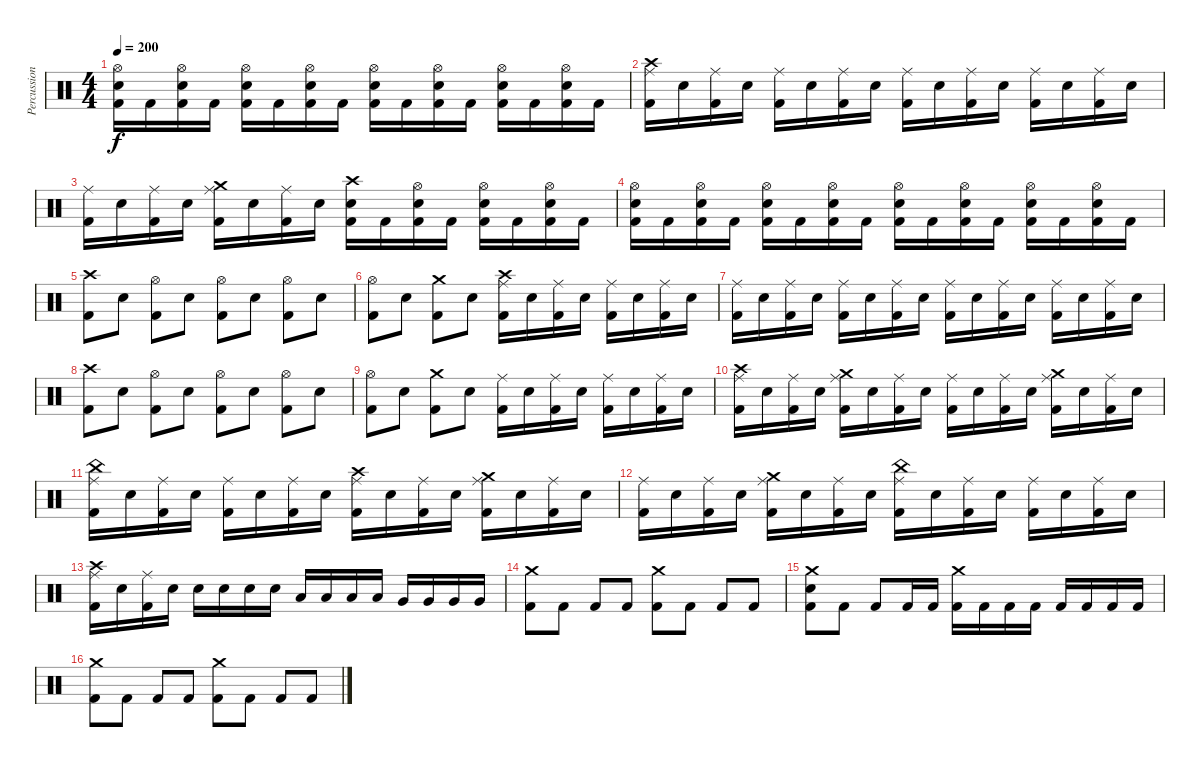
\track ("Percussion" "Percussion") {instrument percussion}
\staff
\articulation defaults
\ts (4 4)
\tempo 200
\clef neutral
\ks c
("Hi-Hat (open)" "Electric Snare (hit)" "Kick (hit) 2").16{dy f} "Kick (hit) 2".16 ("Hi-Hat (open)" "Electric Snare (hit)" "Kick (hit) 2").16 "Kick (hit) 2".16 ("Hi-Hat (open)" "Electric Snare (hit)" "Kick (hit) 2").16 "Kick (hit) 2".16 ("Hi-Hat (open)" "Electric Snare (hit)" "Kick (hit) 2").16 "Kick (hit) 2".16 ("Hi-Hat (open)" "Electric Snare (hit)" "Kick (hit) 2").16 "Kick (hit) 2".16 ("Hi-Hat (open)" "Electric Snare (hit)" "Kick (hit) 2").16 "Kick (hit) 2".16 ("Hi-Hat (open)" "Electric Snare (hit)" "Kick (hit) 2").16 "Kick (hit) 2".16 ("Hi-Hat (open)" "Electric Snare (hit)" "Kick (hit) 2").16 "Kick (hit) 2".16 |
("Crash high (hit)" "Ride (middle)" "Kick (hit) 2").16 "Electric Snare (hit)".16 ("Ride (middle)" "Kick (hit) 2").16 "Electric Snare (hit)".16 ("Ride (middle)" "Kick (hit) 2").16 "Electric Snare (hit)".16 ("Ride (middle)" "Kick (hit) 2").16 "Electric Snare (hit)".16 ("Ride (middle)" "Kick (hit) 2").16 "Electric Snare (hit)".16 ("Ride (middle)" "Kick (hit) 2").16 "Electric Snare (hit)".16 ("Ride (middle)" "Kick (hit) 2").16 "Electric Snare (hit)".16 ("Ride (middle)" "Kick (hit) 2").16 "Electric Snare (hit)".16 |
("Ride (middle)" "Kick (hit) 2").16 "Electric Snare (hit)".16 ("Ride (middle)" "Kick (hit) 2").16 "Electric Snare (hit)".16 ("Crash medium (hit)" "Ride (middle)" "Kick (hit) 2").16 "Electric Snare (hit)".16 ("Ride (middle)" "Kick (hit) 2").16 "Electric Snare (hit)".16 ("Crash high (hit)" "Electric Snare (hit)" "Kick (hit) 2").16 "Kick (hit) 2".16 ("Hi-Hat (open)" "Electric Snare (hit)" "Kick (hit) 2").16 "Kick (hit) 2".16 ("Hi-Hat (open)" "Electric Snare (hit)" "Kick (hit) 2").16 "Kick (hit) 2".16 ("Hi-Hat (open)" "Electric Snare (hit)" "Kick (hit) 2").16 "Kick (hit) 2".16 |
("Hi-Hat (open)" "Electric Snare (hit)" "Kick (hit) 2").16 "Kick (hit) 2".16 ("Hi-Hat (open)" "Electric Snare (hit)" "Kick (hit) 2").16 "Kick (hit) 2".16 ("Hi-Hat (open)" "Electric Snare (hit)" "Kick (hit) 2").16 "Kick (hit) 2".16 ("Hi-Hat (open)" "Electric Snare (hit)" "Kick (hit) 2").16 "Kick (hit) 2".16 ("Hi-Hat (open)" "Electric Snare (hit)" "Kick (hit) 2").16 "Kick (hit) 2".16 ("Hi-Hat (open)" "Electric Snare (hit)" "Kick (hit) 2").16 "Kick (hit) 2".16 ("Hi-Hat (open)" "Electric Snare (hit)" "Kick (hit) 2").16 "Kick (hit) 2".16 ("Hi-Hat (open)" "Electric Snare (hit)" "Kick (hit) 2").16 "Kick (hit) 2".16 |
("Crash high (hit)" "Kick (hit) 2").8 "Electric Snare (hit)".8 ("Hi-Hat (open)" "Kick (hit) 2").8 "Electric Snare (hit)".8 ("Hi-Hat (open)" "Kick (hit) 2").8 "Electric Snare (hit)".8 ("Hi-Hat (open)" "Kick (hit) 2").8 "Electric Snare (hit)".8 |
("Hi-Hat (open)" "Kick (hit) 2").8 "Electric Snare (hit)".8 ("Crash medium (hit)" "Kick (hit) 2").8 "Electric Snare (hit)".8 ("Crash high (hit)" "Ride (middle)" "Kick (hit) 2").16 "Electric Snare (hit)".16 ("Ride (middle)" "Kick (hit) 2").16 "Electric Snare (hit)".16 ("Ride (middle)" "Kick (hit) 2").16 "Electric Snare (hit)".16 ("Ride (middle)" "Kick (hit) 2").16 "Electric Snare (hit)".16 |
("Ride (middle)" "Kick (hit) 2").16 "Electric Snare (hit)".16 ("Ride (middle)" "Kick (hit) 2").16 "Electric Snare (hit)".16 ("Ride (middle)" "Kick (hit) 2").16 "Electric Snare (hit)".16 ("Ride (middle)" "Kick (hit) 2").16 "Electric Snare (hit)".16 ("Ride (middle)" "Kick (hit) 2").16 "Electric Snare (hit)".16 ("Ride (middle)" "Kick (hit) 2").16 "Electric Snare (hit)".16 ("Ride (middle)" "Kick (hit) 2").16 "Electric Snare (hit)".16 ("Ride (middle)" "Kick (hit) 2").16 "Electric Snare (hit)".16 |
("Crash high (hit)" "Kick (hit) 2").8 "Electric Snare (hit)".8 ("Hi-Hat (open)" "Kick (hit) 2").8 "Electric Snare (hit)".8 ("Hi-Hat (open)" "Kick (hit) 2").8 "Electric Snare (hit)".8 ("Hi-Hat (open)" "Kick (hit) 2").8 "Electric Snare (hit)".8 |
("Hi-Hat (open)" "Kick (hit) 2").8 "Electric Snare (hit)".8 ("Crash medium (hit)" "Kick (hit) 2").8 "Electric Snare (hit)".8 ("Ride (middle)" "Kick (hit) 2").16 "Electric Snare (hit)".16 ("Ride (middle)" "Kick (hit) 2").16 "Electric Snare (hit)".16 ("Ride (middle)" "Kick (hit) 2").16 "Electric Snare (hit)".16 ("Ride (middle)" "Kick (hit) 2").16 "Electric Snare (hit)".16 |
("Crash high (hit)" "Ride (middle)" "Kick (hit) 2").16 "Electric Snare (hit)".16 ("Ride (middle)" "Kick (hit) 2").16 "Electric Snare (hit)".16 ("Crash medium (hit)" "Ride (middle)" "Kick (hit) 2").16 "Electric Snare (hit)".16 ("Ride (middle)" "Kick (hit) 2").16 "Electric Snare (hit)".16 ("Ride (middle)" "Kick (hit) 2").16 "Electric Snare (hit)".16 ("Ride (middle)" "Kick (hit) 2").16 "Electric Snare (hit)".16 ("Crash medium (hit)" "Ride (middle)" "Kick (hit) 2").16 "Electric Snare (hit)".16 ("Ride (middle)" "Kick (hit) 2").16 "Electric Snare (hit)".16 |
("China (hit)" "Ride (middle)" "Kick (hit) 2").16 "Electric Snare (hit)".16 ("Ride (middle)" "Kick (hit) 2").16 "Electric Snare (hit)".16 ("Ride (middle)" "Kick (hit) 2").16 "Electric Snare (hit)".16 ("Ride (middle)" "Kick (hit) 2").16 "Electric Snare (hit)".16 ("Crash high (hit)" "Ride (middle)" "Kick (hit) 2").16 "Electric Snare (hit)".16 ("Ride (middle)" "Kick (hit) 2").16 "Electric Snare (hit)".16 ("Crash medium (hit)" "Ride (middle)" "Kick (hit) 2").16 "Electric Snare (hit)".16 ("Ride (middle)" "Kick (hit) 2").16 "Electric Snare (hit)".16 |
("Ride (middle)" "Kick (hit) 2").16 "Electric Snare (hit)".16 ("Ride (middle)" "Kick (hit) 2").16 "Electric Snare (hit)".16 ("Crash medium (hit)" "Ride (middle)" "Kick (hit) 2").16 "Electric Snare (hit)".16 ("Ride (middle)" "Kick (hit) 2").16 "Electric Snare (hit)".16 ("China (hit)" "Ride (middle)" "Kick (hit) 2").16 "Electric Snare (hit)".16 ("Ride (middle)" "Kick (hit) 2").16 "Electric Snare (hit)".16 ("Ride (middle)" "Kick (hit) 2").16 "Electric Snare (hit)".16 ("Ride (middle)" "Kick (hit) 2").16 "Electric Snare (hit)".16 |
("Crash high (hit)" "Ride (middle)" "Kick (hit) 2").16 "Electric Snare (hit)".16 ("Ride (middle)" "Kick (hit) 2").16 "Electric Snare (hit)".16 "Electric Snare (hit)".16 "Electric Snare (hit)".16 "Electric Snare (hit)".16 "Electric Snare (hit)".16 "Low Tom (hit)".16 "Low Tom (hit)".16 "Low Tom (hit)".16 "Low Tom (hit)".16 "Very Low Tom (hit)".16 "Very Low Tom (hit)".16 "Very Low Tom (hit)".16 "Very Low Tom (hit)".16 |
("Crash medium (hit)" "Kick (hit) 2").8 "Kick (hit) 2".8 "Kick (hit) 2".8 "Kick (hit) 2".8 ("Crash medium (hit)" "Kick (hit) 2").8 "Kick (hit) 2".8 "Kick (hit) 2".8 "Kick (hit) 2".8 |
("Crash medium (hit)" "Electric Snare (hit)" "Kick (hit) 2").8 "Kick (hit) 2".8 "Kick (hit) 2".8 "Kick (hit) 2".16 "Kick (hit) 2".16 ("Crash medium (hit)" "Kick (hit) 2").16 "Kick (hit) 2".16 "Kick (hit) 2".16 "Kick (hit) 2".16 "Kick (hit) 2".16 "Kick (hit) 2".16 "Kick (hit) 2".16 "Kick (hit) 2".16 |
("Crash medium (hit)" "Kick (hit) 2").8 "Kick (hit) 2".8 "Kick (hit) 2".8 "Kick (hit) 2".8 ("Crash medium (hit)" "Kick (hit) 2").8 "Kick (hit) 2".8 "Kick (hit) 2".8 "Kick (hit) 2".8
